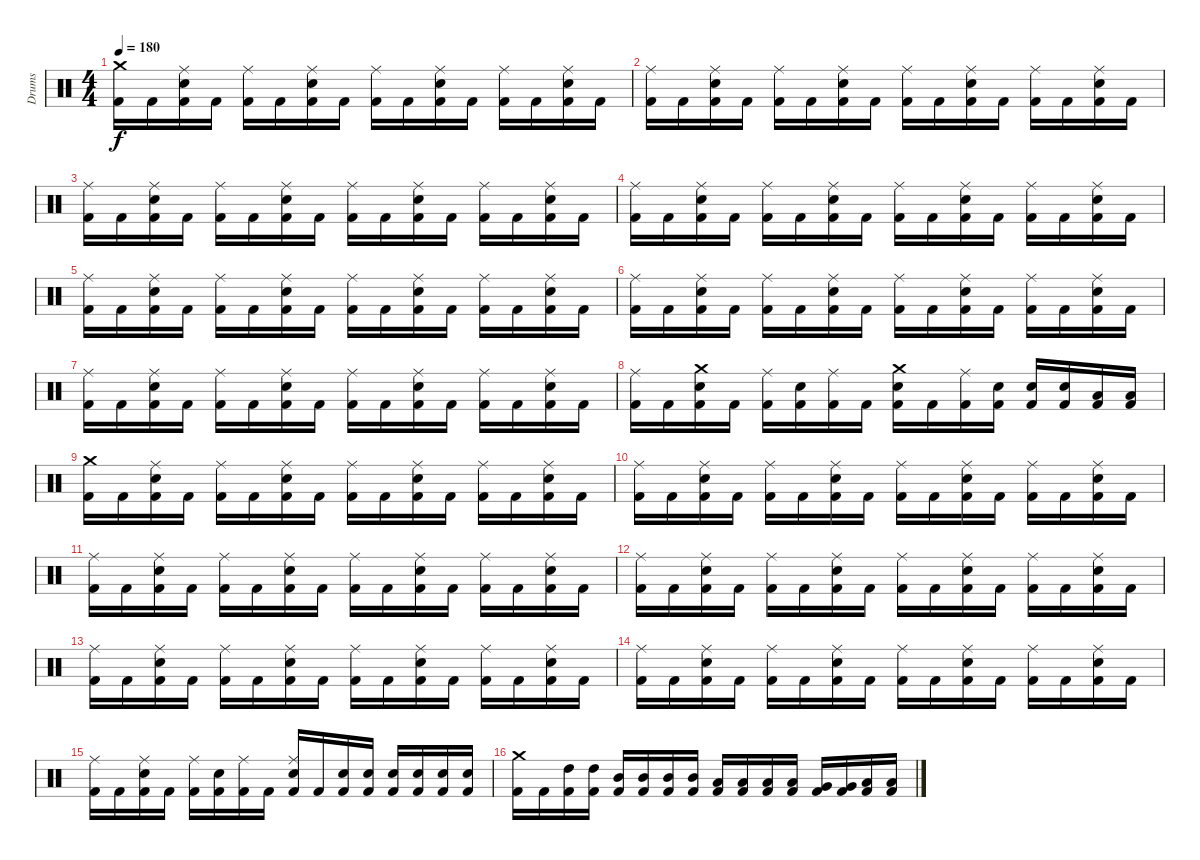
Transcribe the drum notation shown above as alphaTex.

\track ("Drums" "Drums") {instrument percussion}
\staff {score}
\articulation defaults
\ts (4 4)
\tempo 180
\clef neutral
\ks c
("Crash medium (hit)" "Kick (hit) 2").16{dy f} "Kick (hit) 2".16 ("Ride (middle)" "Snare (hit) 2" "Kick (hit) 2").16 "Kick (hit) 2".16 ("Ride (middle)" "Kick (hit) 2").16 "Kick (hit) 2".16 ("Ride (middle)" "Snare (hit) 2" "Kick (hit) 2").16 "Kick (hit) 2".16 ("Ride (middle)" "Kick (hit) 2").16 "Kick (hit) 2".16 ("Ride (middle)" "Snare (hit) 2" "Kick (hit) 2").16 "Kick (hit) 2".16 ("Ride (middle)" "Kick (hit) 2").16 "Kick (hit) 2".16 ("Ride (middle)" "Snare (hit) 2" "Kick (hit) 2").16 "Kick (hit) 2".16 |
("Ride (middle)" "Kick (hit) 2").16 "Kick (hit) 2".16 ("Ride (middle)" "Snare (hit) 2" "Kick (hit) 2").16 "Kick (hit) 2".16 ("Ride (middle)" "Kick (hit) 2").16 "Kick (hit) 2".16 ("Ride (middle)" "Snare (hit) 2" "Kick (hit) 2").16 "Kick (hit) 2".16 ("Ride (middle)" "Kick (hit) 2").16 "Kick (hit) 2".16 ("Ride (middle)" "Snare (hit) 2" "Kick (hit) 2").16 "Kick (hit) 2".16 ("Ride (middle)" "Kick (hit) 2").16 "Kick (hit) 2".16 ("Ride (middle)" "Snare (hit) 2" "Kick (hit) 2").16 "Kick (hit) 2".16 |
("Ride (middle)" "Kick (hit) 2").16 "Kick (hit) 2".16 ("Ride (middle)" "Snare (hit) 2" "Kick (hit) 2").16 "Kick (hit) 2".16 ("Ride (middle)" "Kick (hit) 2").16 "Kick (hit) 2".16 ("Ride (middle)" "Snare (hit) 2" "Kick (hit) 2").16 "Kick (hit) 2".16 ("Ride (middle)" "Kick (hit) 2").16 "Kick (hit) 2".16 ("Ride (middle)" "Snare (hit) 2" "Kick (hit) 2").16 "Kick (hit) 2".16 ("Ride (middle)" "Kick (hit) 2").16 "Kick (hit) 2".16 ("Ride (middle)" "Snare (hit) 2" "Kick (hit) 2").16 "Kick (hit) 2".16 |
("Ride (middle)" "Kick (hit) 2").16 "Kick (hit) 2".16 ("Ride (middle)" "Snare (hit) 2" "Kick (hit) 2").16 "Kick (hit) 2".16 ("Ride (middle)" "Kick (hit) 2").16 "Kick (hit) 2".16 ("Ride (middle)" "Snare (hit) 2" "Kick (hit) 2").16 "Kick (hit) 2".16 ("Ride (middle)" "Kick (hit) 2").16 "Kick (hit) 2".16 ("Ride (middle)" "Snare (hit) 2" "Kick (hit) 2").16 "Kick (hit) 2".16 ("Ride (middle)" "Kick (hit) 2").16 "Kick (hit) 2".16 ("Ride (middle)" "Snare (hit) 2" "Kick (hit) 2").16 "Kick (hit) 2".16 |
("Ride (middle)" "Kick (hit) 2").16 "Kick (hit) 2".16 ("Ride (middle)" "Snare (hit) 2" "Kick (hit) 2").16 "Kick (hit) 2".16 ("Ride (middle)" "Kick (hit) 2").16 "Kick (hit) 2".16 ("Ride (middle)" "Snare (hit) 2" "Kick (hit) 2").16 "Kick (hit) 2".16 ("Ride (middle)" "Kick (hit) 2").16 "Kick (hit) 2".16 ("Ride (middle)" "Snare (hit) 2" "Kick (hit) 2").16 "Kick (hit) 2".16 ("Ride (middle)" "Kick (hit) 2").16 "Kick (hit) 2".16 ("Ride (middle)" "Snare (hit) 2" "Kick (hit) 2").16 "Kick (hit) 2".16 |
("Ride (middle)" "Kick (hit) 2").16 "Kick (hit) 2".16 ("Ride (middle)" "Snare (hit) 2" "Kick (hit) 2").16 "Kick (hit) 2".16 ("Ride (middle)" "Kick (hit) 2").16 "Kick (hit) 2".16 ("Ride (middle)" "Snare (hit) 2" "Kick (hit) 2").16 "Kick (hit) 2".16 ("Ride (middle)" "Kick (hit) 2").16 "Kick (hit) 2".16 ("Ride (middle)" "Snare (hit) 2" "Kick (hit) 2").16 "Kick (hit) 2".16 ("Ride (middle)" "Kick (hit) 2").16 "Kick (hit) 2".16 ("Ride (middle)" "Snare (hit) 2" "Kick (hit) 2").16 "Kick (hit) 2".16 |
("Ride (middle)" "Kick (hit) 2").16 "Kick (hit) 2".16 ("Ride (middle)" "Snare (hit) 2" "Kick (hit) 2").16 "Kick (hit) 2".16 ("Ride (middle)" "Kick (hit) 2").16 "Kick (hit) 2".16 ("Ride (middle)" "Snare (hit) 2" "Kick (hit) 2").16 "Kick (hit) 2".16 ("Ride (middle)" "Kick (hit) 2").16 "Kick (hit) 2".16 ("Ride (middle)" "Snare (hit) 2" "Kick (hit) 2").16 "Kick (hit) 2".16 ("Ride (middle)" "Kick (hit) 2").16 "Kick (hit) 2".16 ("Ride (middle)" "Snare (hit) 2" "Kick (hit) 2").16 "Kick (hit) 2".16 |
("Ride (middle)" "Kick (hit) 2").16 "Kick (hit) 2".16 ("Crash medium (hit)" "Snare (hit) 2" "Kick (hit) 2").16 "Kick (hit) 2".16 ("Ride (middle)" "Kick (hit) 2").16 ("Snare (hit) 2" "Kick (hit) 2").16 ("Ride (middle)" "Kick (hit) 2").16 "Kick (hit) 2".16 ("Crash medium (hit)" "Snare (hit) 2" "Kick (hit) 2").16 "Kick (hit) 2".16 ("Ride (middle)" "Kick (hit) 2").16 ("Snare (hit) 2" "Kick (hit) 2").16 ("Snare (hit) 2" "Kick (hit) 2").16 ("Snare (hit) 2" "Kick (hit) 2").16 ("Low Tom (hit)" "Kick (hit) 2").16 ("Low Tom (hit)" "Kick (hit) 2").16 |
("Crash medium (hit)" "Kick (hit) 2").16 "Kick (hit) 2".16 ("Ride (middle)" "Snare (hit) 2" "Kick (hit) 2").16 "Kick (hit) 2".16 ("Ride (middle)" "Kick (hit) 2").16 "Kick (hit) 2".16 ("Ride (middle)" "Snare (hit) 2" "Kick (hit) 2").16 "Kick (hit) 2".16 ("Ride (middle)" "Kick (hit) 2").16 "Kick (hit) 2".16 ("Ride (middle)" "Snare (hit) 2" "Kick (hit) 2").16 "Kick (hit) 2".16 ("Ride (middle)" "Kick (hit) 2").16 "Kick (hit) 2".16 ("Ride (middle)" "Snare (hit) 2" "Kick (hit) 2").16 "Kick (hit) 2".16 |
("Ride (middle)" "Kick (hit) 2").16 "Kick (hit) 2".16 ("Ride (middle)" "Snare (hit) 2" "Kick (hit) 2").16 "Kick (hit) 2".16 ("Ride (middle)" "Kick (hit) 2").16 "Kick (hit) 2".16 ("Ride (middle)" "Snare (hit) 2" "Kick (hit) 2").16 "Kick (hit) 2".16 ("Ride (middle)" "Kick (hit) 2").16 "Kick (hit) 2".16 ("Ride (middle)" "Snare (hit) 2" "Kick (hit) 2").16 "Kick (hit) 2".16 ("Ride (middle)" "Kick (hit) 2").16 "Kick (hit) 2".16 ("Ride (middle)" "Snare (hit) 2" "Kick (hit) 2").16 "Kick (hit) 2".16 |
("Ride (middle)" "Kick (hit) 2").16 "Kick (hit) 2".16 ("Ride (middle)" "Snare (hit) 2" "Kick (hit) 2").16 "Kick (hit) 2".16 ("Ride (middle)" "Kick (hit) 2").16 "Kick (hit) 2".16 ("Ride (middle)" "Snare (hit) 2" "Kick (hit) 2").16 "Kick (hit) 2".16 ("Ride (middle)" "Kick (hit) 2").16 "Kick (hit) 2".16 ("Ride (middle)" "Snare (hit) 2" "Kick (hit) 2").16 "Kick (hit) 2".16 ("Ride (middle)" "Kick (hit) 2").16 "Kick (hit) 2".16 ("Ride (middle)" "Snare (hit) 2" "Kick (hit) 2").16 "Kick (hit) 2".16 |
("Ride (middle)" "Kick (hit) 2").16 "Kick (hit) 2".16 ("Ride (middle)" "Snare (hit) 2" "Kick (hit) 2").16 "Kick (hit) 2".16 ("Ride (middle)" "Kick (hit) 2").16 "Kick (hit) 2".16 ("Ride (middle)" "Snare (hit) 2" "Kick (hit) 2").16 "Kick (hit) 2".16 ("Ride (middle)" "Kick (hit) 2").16 "Kick (hit) 2".16 ("Ride (middle)" "Snare (hit) 2" "Kick (hit) 2").16 "Kick (hit) 2".16 ("Ride (middle)" "Kick (hit) 2").16 "Kick (hit) 2".16 ("Ride (middle)" "Snare (hit) 2" "Kick (hit) 2").16 "Kick (hit) 2".16 |
("Ride (middle)" "Kick (hit) 2").16 "Kick (hit) 2".16 ("Ride (middle)" "Snare (hit) 2" "Kick (hit) 2").16 "Kick (hit) 2".16 ("Ride (middle)" "Kick (hit) 2").16 "Kick (hit) 2".16 ("Ride (middle)" "Snare (hit) 2" "Kick (hit) 2").16 "Kick (hit) 2".16 ("Ride (middle)" "Kick (hit) 2").16 "Kick (hit) 2".16 ("Ride (middle)" "Snare (hit) 2" "Kick (hit) 2").16 "Kick (hit) 2".16 ("Ride (middle)" "Kick (hit) 2").16 "Kick (hit) 2".16 ("Ride (middle)" "Snare (hit) 2" "Kick (hit) 2").16 "Kick (hit) 2".16 |
("Ride (middle)" "Kick (hit) 2").16 "Kick (hit) 2".16 ("Ride (middle)" "Snare (hit) 2" "Kick (hit) 2").16 "Kick (hit) 2".16 ("Ride (middle)" "Kick (hit) 2").16 "Kick (hit) 2".16 ("Ride (middle)" "Snare (hit) 2" "Kick (hit) 2").16 "Kick (hit) 2".16 ("Ride (middle)" "Kick (hit) 2").16 "Kick (hit) 2".16 ("Ride (middle)" "Snare (hit) 2" "Kick (hit) 2").16 "Kick (hit) 2".16 ("Ride (middle)" "Kick (hit) 2").16 "Kick (hit) 2".16 ("Ride (middle)" "Snare (hit) 2" "Kick (hit) 2").16 "Kick (hit) 2".16 |
("Ride (middle)" "Kick (hit) 2").16 "Kick (hit) 2".16 ("Ride (middle)" "Snare (hit) 2" "Kick (hit) 2").16 "Kick (hit) 2".16 ("Ride (middle)" "Kick (hit) 2").16 ("Snare (hit) 2" "Kick (hit) 2").16 ("Ride (middle)" "Kick (hit) 2").16 "Kick (hit) 2".16 ("Ride (middle)" "Snare (hit) 2" "Kick (hit) 2").16 "Kick (hit) 2".16 ("Snare (hit) 2" "Kick (hit) 2").16 ("Snare (hit) 2" "Kick (hit) 2").16 ("Snare (hit) 2" "Kick (hit) 2").16 ("Snare (hit) 2" "Kick (hit) 2").16 ("Snare (hit) 2" "Kick (hit) 2").16 ("Snare (hit) 2" "Kick (hit) 2").16 |
("Crash medium (hit)" "Kick (hit) 2").16 "Kick (hit) 2".16 ("High Tom (hit)" "Kick (hit) 2").16 ("High Tom (hit)" "Kick (hit) 2").16 ("Mid Tom (hit)" "Kick (hit) 2").16 ("Mid Tom (hit)" "Kick (hit) 2").16 ("Mid Tom (hit)" "Kick (hit) 2").16 ("Mid Tom (hit)" "Kick (hit) 2").16 ("Low Tom (hit)" "Kick (hit) 2").16 ("Low Tom (hit)" "Kick (hit) 2").16 ("Low Tom (hit)" "Kick (hit) 2").16 ("Low Tom (hit)" "Kick (hit) 2").16 ("Very Low Tom (hit)" "Kick (hit) 2").16 ("Very Low Tom (hit)" "Kick (hit) 2").16 ("Low Floor Tom (hit)" "Kick (hit) 2").16 ("Low Floor Tom (hit)" "Kick (hit) 2").16
